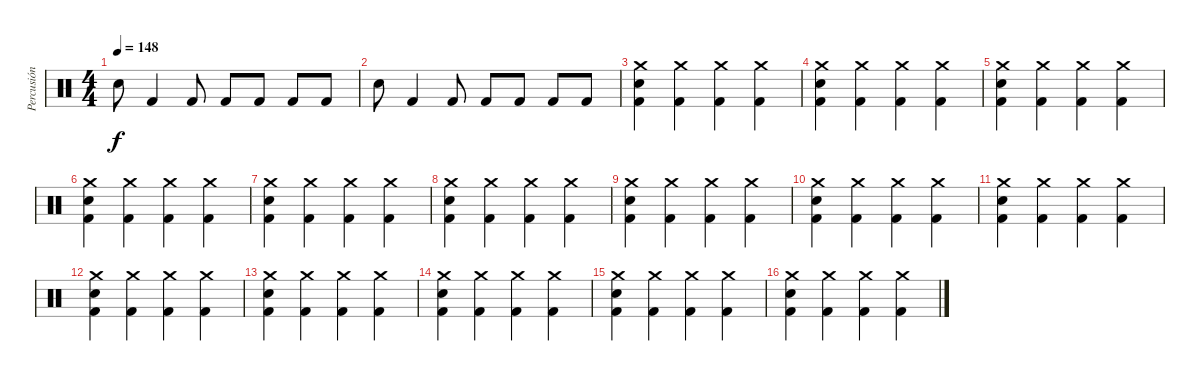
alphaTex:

\track ("Percusión" "Percusión") {instrument percussion}
\staff {score}
\articulation defaults
\ts (4 4)
\tempo 148
\clef neutral
\ks c "Snare (hit) 2".8{dy f} "Kick (hit) 2".4 "Kick (hit) 2".8 "Kick (hit) 2".8 "Kick (hit) 2".8 "Kick (hit) 2".8 "Kick (hit) 2".8
|
"Snare (hit) 2".8 "Kick (hit) 2".4 "Kick (hit) 2".8 "Kick (hit) 2".8 "Kick (hit) 2".8 "Kick (hit) 2".8 "Kick (hit) 2".8 |
("Crash medium (hit)" "Snare (hit) 2" "Kick (hit) 2").4 ("Crash medium (hit)" "Kick (hit) 2").4 ("Crash medium (hit)" "Kick (hit) 2").4 ("Crash medium (hit)" "Kick (hit) 2").4 |
("Crash medium (hit)" "Snare (hit) 2" "Kick (hit) 2").4 ("Crash medium (hit)" "Kick (hit) 2").4 ("Crash medium (hit)" "Kick (hit) 2").4 ("Crash medium (hit)" "Kick (hit) 2").4 |
("Crash medium (hit)" "Snare (hit) 2" "Kick (hit) 2").4 ("Crash medium (hit)" "Kick (hit) 2").4 ("Crash medium (hit)" "Kick (hit) 2").4 ("Crash medium (hit)" "Kick (hit) 2").4 |
("Crash medium (hit)" "Snare (hit) 2" "Kick (hit) 2").4 ("Crash medium (hit)" "Kick (hit) 2").4 ("Crash medium (hit)" "Kick (hit) 2").4 ("Crash medium (hit)" "Kick (hit) 2").4 |
("Crash medium (hit)" "Snare (hit) 2" "Kick (hit) 2").4 ("Crash medium (hit)" "Kick (hit) 2").4 ("Crash medium (hit)" "Kick (hit) 2").4 ("Crash medium (hit)" "Kick (hit) 2").4 |
("Crash medium (hit)" "Snare (hit) 2" "Kick (hit) 2").4 ("Crash medium (hit)" "Kick (hit) 2").4 ("Crash medium (hit)" "Kick (hit) 2").4 ("Crash medium (hit)" "Kick (hit) 2").4 |
("Crash medium (hit)" "Snare (hit) 2" "Kick (hit) 2").4 ("Crash medium (hit)" "Kick (hit) 2").4 ("Crash medium (hit)" "Kick (hit) 2").4 ("Crash medium (hit)" "Kick (hit) 2").4 |
("Crash medium (hit)" "Snare (hit) 2" "Kick (hit) 2").4 ("Crash medium (hit)" "Kick (hit) 2").4 ("Crash medium (hit)" "Kick (hit) 2").4 ("Crash medium (hit)" "Kick (hit) 2").4 |
("Crash medium (hit)" "Snare (hit) 2" "Kick (hit) 2").4 ("Crash medium (hit)" "Kick (hit) 2").4 ("Crash medium (hit)" "Kick (hit) 2").4 ("Crash medium (hit)" "Kick (hit) 2").4 |
("Crash medium (hit)" "Snare (hit) 2" "Kick (hit) 2").4 ("Crash medium (hit)" "Kick (hit) 2").4 ("Crash medium (hit)" "Kick (hit) 2").4 ("Crash medium (hit)" "Kick (hit) 2").4 |
("Crash medium (hit)" "Snare (hit) 2" "Kick (hit) 2").4 ("Crash medium (hit)" "Kick (hit) 2").4 ("Crash medium (hit)" "Kick (hit) 2").4 ("Crash medium (hit)" "Kick (hit) 2").4 |
("Crash medium (hit)" "Snare (hit) 2" "Kick (hit) 2").4 ("Crash medium (hit)" "Kick (hit) 2").4 ("Crash medium (hit)" "Kick (hit) 2").4 ("Crash medium (hit)" "Kick (hit) 2").4 |
("Crash medium (hit)" "Snare (hit) 2" "Kick (hit) 2").4 ("Crash medium (hit)" "Kick (hit) 2").4 ("Crash medium (hit)" "Kick (hit) 2").4 ("Crash medium (hit)" "Kick (hit) 2").4 |
("Crash medium (hit)" "Snare (hit) 2" "Kick (hit) 2").4 ("Crash medium (hit)" "Kick (hit) 2").4 ("Crash medium (hit)" "Kick (hit) 2").4 ("Crash medium (hit)" "Kick (hit) 2").4
